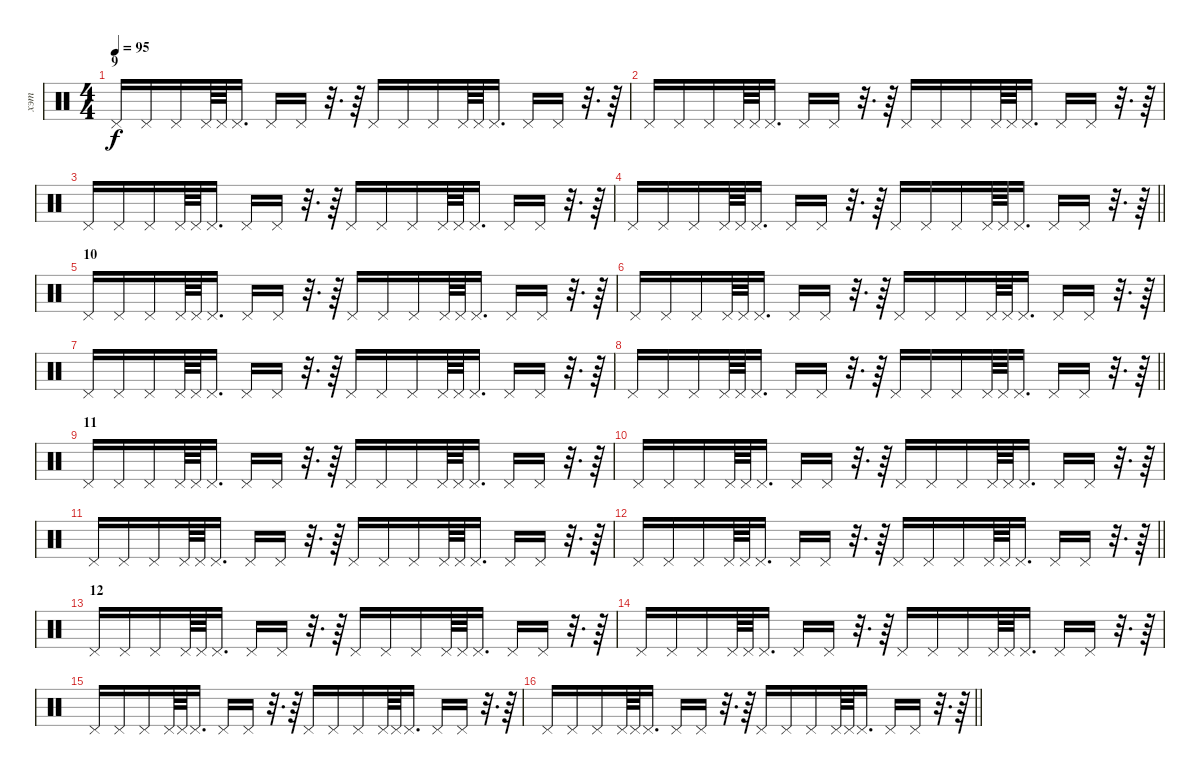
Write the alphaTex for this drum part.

\track ("хэт" "хэт") {instrument percussion}
\staff {score}
\articulation defaults
\ts (4 4)
\section ("" "9")
\tempo 95
\clef neutral
\ks c "Pedal Hi-Hat (hit)".16{dy f} "Pedal Hi-Hat (hit)".16 "Pedal Hi-Hat (hit)".16 "Pedal Hi-Hat (hit)".64 "Pedal Hi-Hat (hit)".64 "Pedal Hi-Hat (hit)".16{d} "Pedal Hi-Hat (hit)".16 "Pedal Hi-Hat (hit)".16
r.32{d} r.64 "Pedal Hi-Hat (hit)".16 "Pedal Hi-Hat (hit)".16 "Pedal Hi-Hat (hit)".16 "Pedal Hi-Hat (hit)".64 "Pedal Hi-Hat (hit)".64 "Pedal Hi-Hat (hit)".16{d} "Pedal Hi-Hat (hit)".16 "Pedal Hi-Hat (hit)".16 r.32{d} r.64 |
"Pedal Hi-Hat (hit)".16 "Pedal Hi-Hat (hit)".16 "Pedal Hi-Hat (hit)".16 "Pedal Hi-Hat (hit)".64 "Pedal Hi-Hat (hit)".64 "Pedal Hi-Hat (hit)".16{d} "Pedal Hi-Hat (hit)".16 "Pedal Hi-Hat (hit)".16 r.32{d} r.64 "Pedal Hi-Hat (hit)".16 "Pedal Hi-Hat (hit)".16 "Pedal Hi-Hat (hit)".16 "Pedal Hi-Hat (hit)".64 "Pedal Hi-Hat (hit)".64 "Pedal Hi-Hat (hit)".16{d} "Pedal Hi-Hat (hit)".16 "Pedal Hi-Hat (hit)".16 r.32{d} r.64 |
"Pedal Hi-Hat (hit)".16 "Pedal Hi-Hat (hit)".16 "Pedal Hi-Hat (hit)".16 "Pedal Hi-Hat (hit)".64 "Pedal Hi-Hat (hit)".64 "Pedal Hi-Hat (hit)".16{d} "Pedal Hi-Hat (hit)".16 "Pedal Hi-Hat (hit)".16 r.32{d} r.64 "Pedal Hi-Hat (hit)".16 "Pedal Hi-Hat (hit)".16 "Pedal Hi-Hat (hit)".16 "Pedal Hi-Hat (hit)".64 "Pedal Hi-Hat (hit)".64 "Pedal Hi-Hat (hit)".16{d} "Pedal Hi-Hat (hit)".16 "Pedal Hi-Hat (hit)".16 r.32{d} r.64 |
\barLineRight lightlight "Pedal Hi-Hat (hit)".16 "Pedal Hi-Hat (hit)".16 "Pedal Hi-Hat (hit)".16 "Pedal Hi-Hat (hit)".64 "Pedal Hi-Hat (hit)".64 "Pedal Hi-Hat (hit)".16{d} "Pedal Hi-Hat (hit)".16 "Pedal Hi-Hat (hit)".16
r.32{d} r.64 "Pedal Hi-Hat (hit)".16 "Pedal Hi-Hat (hit)".16 "Pedal Hi-Hat (hit)".16 "Pedal Hi-Hat (hit)".64 "Pedal Hi-Hat (hit)".64 "Pedal Hi-Hat (hit)".16{d} "Pedal Hi-Hat (hit)".16 "Pedal Hi-Hat (hit)".16 r.32{d} r.64 |
\section ("" "10")
"Pedal Hi-Hat (hit)".16 "Pedal Hi-Hat (hit)".16 "Pedal Hi-Hat (hit)".16 "Pedal Hi-Hat (hit)".64 "Pedal Hi-Hat (hit)".64 "Pedal Hi-Hat (hit)".16{d} "Pedal Hi-Hat (hit)".16 "Pedal Hi-Hat (hit)".16 r.32{d} r.64 "Pedal Hi-Hat (hit)".16 "Pedal Hi-Hat (hit)".16 "Pedal Hi-Hat (hit)".16 "Pedal Hi-Hat (hit)".64 "Pedal Hi-Hat (hit)".64 "Pedal Hi-Hat (hit)".16{d} "Pedal Hi-Hat (hit)".16 "Pedal Hi-Hat (hit)".16 r.32{d} r.64 |
"Pedal Hi-Hat (hit)".16 "Pedal Hi-Hat (hit)".16 "Pedal Hi-Hat (hit)".16 "Pedal Hi-Hat (hit)".64 "Pedal Hi-Hat (hit)".64 "Pedal Hi-Hat (hit)".16{d} "Pedal Hi-Hat (hit)".16 "Pedal Hi-Hat (hit)".16 r.32{d} r.64 "Pedal Hi-Hat (hit)".16 "Pedal Hi-Hat (hit)".16 "Pedal Hi-Hat (hit)".16 "Pedal Hi-Hat (hit)".64 "Pedal Hi-Hat (hit)".64 "Pedal Hi-Hat (hit)".16{d} "Pedal Hi-Hat (hit)".16 "Pedal Hi-Hat (hit)".16 r.32{d} r.64 |
"Pedal Hi-Hat (hit)".16 "Pedal Hi-Hat (hit)".16 "Pedal Hi-Hat (hit)".16 "Pedal Hi-Hat (hit)".64 "Pedal Hi-Hat (hit)".64 "Pedal Hi-Hat (hit)".16{d} "Pedal Hi-Hat (hit)".16 "Pedal Hi-Hat (hit)".16 r.32{d} r.64 "Pedal Hi-Hat (hit)".16 "Pedal Hi-Hat (hit)".16 "Pedal Hi-Hat (hit)".16 "Pedal Hi-Hat (hit)".64 "Pedal Hi-Hat (hit)".64 "Pedal Hi-Hat (hit)".16{d} "Pedal Hi-Hat (hit)".16 "Pedal Hi-Hat (hit)".16 r.32{d} r.64 |
\barLineRight lightlight "Pedal Hi-Hat (hit)".16 "Pedal Hi-Hat (hit)".16 "Pedal Hi-Hat (hit)".16 "Pedal Hi-Hat (hit)".64 "Pedal Hi-Hat (hit)".64 "Pedal Hi-Hat (hit)".16{d} "Pedal Hi-Hat (hit)".16 "Pedal Hi-Hat (hit)".16
r.32{d} r.64 "Pedal Hi-Hat (hit)".16 "Pedal Hi-Hat (hit)".16 "Pedal Hi-Hat (hit)".16 "Pedal Hi-Hat (hit)".64 "Pedal Hi-Hat (hit)".64 "Pedal Hi-Hat (hit)".16{d} "Pedal Hi-Hat (hit)".16 "Pedal Hi-Hat (hit)".16 r.32{d} r.64 |
\section ("" "11")
"Pedal Hi-Hat (hit)".16 "Pedal Hi-Hat (hit)".16 "Pedal Hi-Hat (hit)".16 "Pedal Hi-Hat (hit)".64 "Pedal Hi-Hat (hit)".64 "Pedal Hi-Hat (hit)".16{d} "Pedal Hi-Hat (hit)".16 "Pedal Hi-Hat (hit)".16 r.32{d} r.64 "Pedal Hi-Hat (hit)".16 "Pedal Hi-Hat (hit)".16 "Pedal Hi-Hat (hit)".16 "Pedal Hi-Hat (hit)".64 "Pedal Hi-Hat (hit)".64 "Pedal Hi-Hat (hit)".16{d} "Pedal Hi-Hat (hit)".16 "Pedal Hi-Hat (hit)".16 r.32{d} r.64 |
"Pedal Hi-Hat (hit)".16 "Pedal Hi-Hat (hit)".16 "Pedal Hi-Hat (hit)".16 "Pedal Hi-Hat (hit)".64 "Pedal Hi-Hat (hit)".64 "Pedal Hi-Hat (hit)".16{d} "Pedal Hi-Hat (hit)".16 "Pedal Hi-Hat (hit)".16 r.32{d} r.64 "Pedal Hi-Hat (hit)".16 "Pedal Hi-Hat (hit)".16 "Pedal Hi-Hat (hit)".16 "Pedal Hi-Hat (hit)".64 "Pedal Hi-Hat (hit)".64 "Pedal Hi-Hat (hit)".16{d} "Pedal Hi-Hat (hit)".16 "Pedal Hi-Hat (hit)".16 r.32{d} r.64 |
"Pedal Hi-Hat (hit)".16 "Pedal Hi-Hat (hit)".16 "Pedal Hi-Hat (hit)".16 "Pedal Hi-Hat (hit)".64 "Pedal Hi-Hat (hit)".64 "Pedal Hi-Hat (hit)".16{d} "Pedal Hi-Hat (hit)".16 "Pedal Hi-Hat (hit)".16 r.32{d} r.64 "Pedal Hi-Hat (hit)".16 "Pedal Hi-Hat (hit)".16 "Pedal Hi-Hat (hit)".16 "Pedal Hi-Hat (hit)".64 "Pedal Hi-Hat (hit)".64 "Pedal Hi-Hat (hit)".16{d} "Pedal Hi-Hat (hit)".16 "Pedal Hi-Hat (hit)".16 r.32{d} r.64 |
\barLineRight lightlight "Pedal Hi-Hat (hit)".16 "Pedal Hi-Hat (hit)".16 "Pedal Hi-Hat (hit)".16 "Pedal Hi-Hat (hit)".64 "Pedal Hi-Hat (hit)".64 "Pedal Hi-Hat (hit)".16{d} "Pedal Hi-Hat (hit)".16 "Pedal Hi-Hat (hit)".16
r.32{d} r.64 "Pedal Hi-Hat (hit)".16 "Pedal Hi-Hat (hit)".16 "Pedal Hi-Hat (hit)".16 "Pedal Hi-Hat (hit)".64 "Pedal Hi-Hat (hit)".64 "Pedal Hi-Hat (hit)".16{d} "Pedal Hi-Hat (hit)".16 "Pedal Hi-Hat (hit)".16 r.32{d} r.64 |
\section ("" "12")
"Pedal Hi-Hat (hit)".16 "Pedal Hi-Hat (hit)".16 "Pedal Hi-Hat (hit)".16 "Pedal Hi-Hat (hit)".64 "Pedal Hi-Hat (hit)".64 "Pedal Hi-Hat (hit)".16{d} "Pedal Hi-Hat (hit)".16 "Pedal Hi-Hat (hit)".16 r.32{d} r.64 "Pedal Hi-Hat (hit)".16 "Pedal Hi-Hat (hit)".16 "Pedal Hi-Hat (hit)".16 "Pedal Hi-Hat (hit)".64 "Pedal Hi-Hat (hit)".64 "Pedal Hi-Hat (hit)".16{d} "Pedal Hi-Hat (hit)".16 "Pedal Hi-Hat (hit)".16 r.32{d} r.64 |
"Pedal Hi-Hat (hit)".16 "Pedal Hi-Hat (hit)".16 "Pedal Hi-Hat (hit)".16 "Pedal Hi-Hat (hit)".64 "Pedal Hi-Hat (hit)".64 "Pedal Hi-Hat (hit)".16{d} "Pedal Hi-Hat (hit)".16 "Pedal Hi-Hat (hit)".16 r.32{d} r.64 "Pedal Hi-Hat (hit)".16 "Pedal Hi-Hat (hit)".16 "Pedal Hi-Hat (hit)".16 "Pedal Hi-Hat (hit)".64 "Pedal Hi-Hat (hit)".64 "Pedal Hi-Hat (hit)".16{d} "Pedal Hi-Hat (hit)".16 "Pedal Hi-Hat (hit)".16 r.32{d} r.64 |
"Pedal Hi-Hat (hit)".16 "Pedal Hi-Hat (hit)".16 "Pedal Hi-Hat (hit)".16 "Pedal Hi-Hat (hit)".64 "Pedal Hi-Hat (hit)".64 "Pedal Hi-Hat (hit)".16{d} "Pedal Hi-Hat (hit)".16 "Pedal Hi-Hat (hit)".16 r.32{d} r.64 "Pedal Hi-Hat (hit)".16 "Pedal Hi-Hat (hit)".16 "Pedal Hi-Hat (hit)".16 "Pedal Hi-Hat (hit)".64 "Pedal Hi-Hat (hit)".64 "Pedal Hi-Hat (hit)".16{d} "Pedal Hi-Hat (hit)".16 "Pedal Hi-Hat (hit)".16 r.32{d} r.64 |
\barLineRight lightlight "Pedal Hi-Hat (hit)".16 "Pedal Hi-Hat (hit)".16 "Pedal Hi-Hat (hit)".16 "Pedal Hi-Hat (hit)".64 "Pedal Hi-Hat (hit)".64 "Pedal Hi-Hat (hit)".16{d} "Pedal Hi-Hat (hit)".16 "Pedal Hi-Hat (hit)".16
r.32{d} r.64 "Pedal Hi-Hat (hit)".16 "Pedal Hi-Hat (hit)".16 "Pedal Hi-Hat (hit)".16 "Pedal Hi-Hat (hit)".64 "Pedal Hi-Hat (hit)".64 "Pedal Hi-Hat (hit)".16{d} "Pedal Hi-Hat (hit)".16 "Pedal Hi-Hat (hit)".16 r.32{d} r.64
